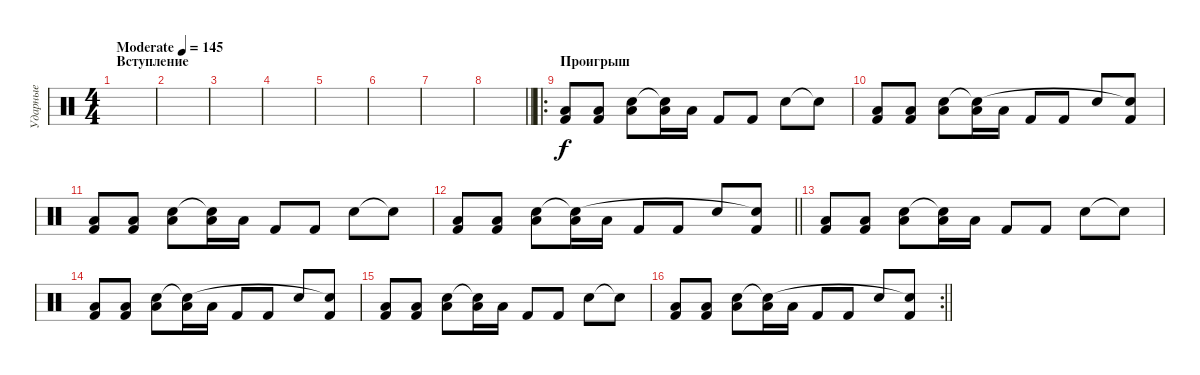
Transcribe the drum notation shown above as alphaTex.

\track ("Ударные" "Ударные") {instrument percussion}
\staff {score}
\articulation defaults
\ts (4 4)
\section ("" "Вступление")
\tempo (145 "Moderate")
\clef neutral
\ks c
|
|
|
|
|
|
|
\barLineRight lightlight
|
\ro
\section ("" "Проигрыш")
("Kick (hit) 2" "Low Floor Tom (hit)").8 ("Kick (hit) 2" "Low Floor Tom (hit)").8 ("Low Floor Tom (hit)" "Electric Snare (hit)").8 ("Low Floor Tom (hit)" "Snare (hit)"{t}).16 "Low Floor Tom (hit)".16 "Kick (hit) 2".8 "Kick (hit) 2".8 "Electric Snare (hit)".8 "Snare (hit)"{t}.8 |
("Kick (hit) 2" "Low Floor Tom (hit)").8 ("Kick (hit) 2" "Low Floor Tom (hit)").8 ("Low Floor Tom (hit)" "Electric Snare (hit)").8 ("Low Floor Tom (hit)" "Snare (hit)"{t}).16 "Low Floor Tom (hit)".16 "Kick (hit) 2".8 "Kick (hit) 2".8 "Electric Snare (hit)".8 ("Kick (hit) 2" "Snare (hit)"{t}).8 |
("Kick (hit) 2" "Low Floor Tom (hit)").8 ("Kick (hit) 2" "Low Floor Tom (hit)").8 ("Low Floor Tom (hit)" "Electric Snare (hit)").8 ("Low Floor Tom (hit)" "Snare (hit)"{t}).16 "Low Floor Tom (hit)".16 "Kick (hit) 2".8 "Kick (hit) 2".8 "Electric Snare (hit)".8 "Snare (hit)"{t}.8 |
\barLineRight lightlight
("Kick (hit) 2" "Low Floor Tom (hit)").8 ("Kick (hit) 2" "Low Floor Tom (hit)").8 ("Low Floor Tom (hit)" "Electric Snare (hit)").8 ("Low Floor Tom (hit)" "Snare (hit)"{t}).16 "Low Floor Tom (hit)".16 "Kick (hit) 2".8 "Kick (hit) 2".8 "Electric Snare (hit)".8 ("Kick (hit) 2" "Snare (hit)"{t}).8 |
("Kick (hit) 2" "Low Floor Tom (hit)").8 ("Kick (hit) 2" "Low Floor Tom (hit)").8 ("Low Floor Tom (hit)" "Electric Snare (hit)").8 ("Low Floor Tom (hit)" "Snare (hit)"{t}).16 "Low Floor Tom (hit)".16 "Kick (hit) 2".8 "Kick (hit) 2".8 "Electric Snare (hit)".8 "Snare (hit)"{t}.8 |
("Kick (hit) 2" "Low Floor Tom (hit)").8 ("Kick (hit) 2" "Low Floor Tom (hit)").8 ("Low Floor Tom (hit)" "Electric Snare (hit)").8 ("Low Floor Tom (hit)" "Snare (hit)"{t}).16 "Low Floor Tom (hit)".16 "Kick (hit) 2".8 "Kick (hit) 2".8 "Electric Snare (hit)".8 ("Kick (hit) 2" "Snare (hit)"{t}).8 |
("Kick (hit) 2" "Low Floor Tom (hit)").8 ("Kick (hit) 2" "Low Floor Tom (hit)").8 ("Low Floor Tom (hit)" "Electric Snare (hit)").8 ("Low Floor Tom (hit)" "Snare (hit)"{t}).16 "Low Floor Tom (hit)".16 "Kick (hit) 2".8 "Kick (hit) 2".8 "Electric Snare (hit)".8 "Snare (hit)"{t}.8 |
\rc 2
\barLineRight lightlight
("Kick (hit) 2" "Low Floor Tom (hit)").8 ("Kick (hit) 2" "Low Floor Tom (hit)").8 ("Low Floor Tom (hit)" "Electric Snare (hit)").8 ("Low Floor Tom (hit)" "Snare (hit)"{t}).16 "Low Floor Tom (hit)".16 "Kick (hit) 2".8 "Kick (hit) 2".8 "Electric Snare (hit)".8 ("Kick (hit) 2" "Snare (hit)"{t}).8
